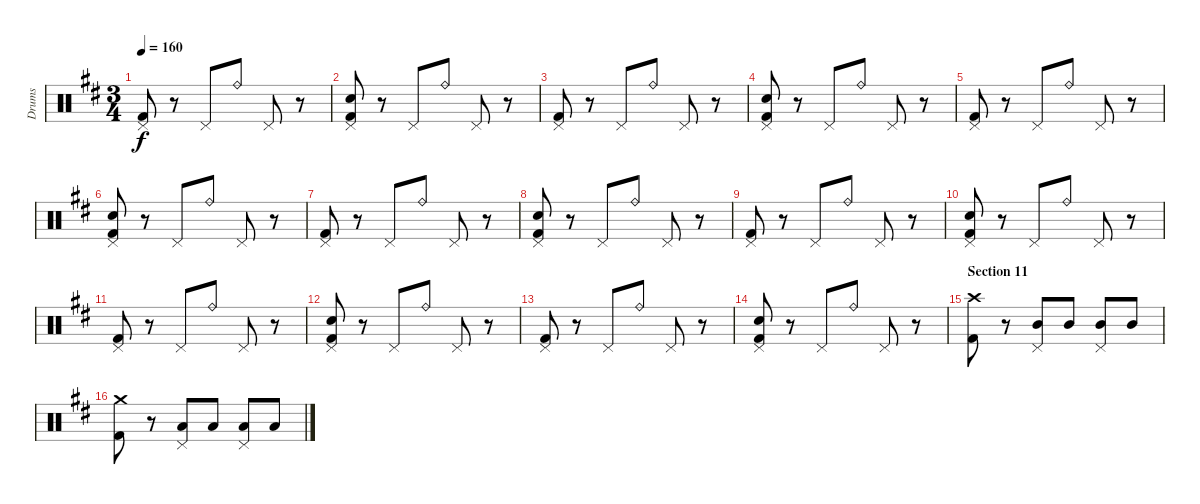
\track ("Drums" "Drums") {instrument percussion}
\staff {score}
\articulation defaults
\ts (3 4)
\tempo 160
\clef neutral
\ks bminor
("Pedal Hi-Hat (hit)" "Kick (hit) 2").8{dy f} r.8 "Pedal Hi-Hat (hit)".8 "Ride (bell)".8 "Pedal Hi-Hat (hit)".8 r.8 |
("Pedal Hi-Hat (hit)" "Snare (hit) 2" "Kick (hit) 2").8 r.8 "Pedal Hi-Hat (hit)".8 "Ride (bell)".8 "Pedal Hi-Hat (hit)".8 r.8 |
("Pedal Hi-Hat (hit)" "Kick (hit) 2").8 r.8 "Pedal Hi-Hat (hit)".8 "Ride (bell)".8 "Pedal Hi-Hat (hit)".8 r.8 |
("Pedal Hi-Hat (hit)" "Snare (hit) 2" "Kick (hit) 2").8 r.8 "Pedal Hi-Hat (hit)".8 "Ride (bell)".8 "Pedal Hi-Hat (hit)".8 r.8 |
("Pedal Hi-Hat (hit)" "Kick (hit) 2").8 r.8 "Pedal Hi-Hat (hit)".8 "Ride (bell)".8 "Pedal Hi-Hat (hit)".8 r.8 |
("Pedal Hi-Hat (hit)" "Snare (hit) 2" "Kick (hit) 2").8 r.8 "Pedal Hi-Hat (hit)".8 "Ride (bell)".8 "Pedal Hi-Hat (hit)".8 r.8 |
("Pedal Hi-Hat (hit)" "Kick (hit) 2").8 r.8 "Pedal Hi-Hat (hit)".8 "Ride (bell)".8 "Pedal Hi-Hat (hit)".8 r.8 |
("Pedal Hi-Hat (hit)" "Snare (hit) 2" "Kick (hit) 2").8 r.8 "Pedal Hi-Hat (hit)".8 "Ride (bell)".8 "Pedal Hi-Hat (hit)".8 r.8 |
("Pedal Hi-Hat (hit)" "Kick (hit) 2").8 r.8 "Pedal Hi-Hat (hit)".8 "Ride (bell)".8 "Pedal Hi-Hat (hit)".8 r.8 |
("Pedal Hi-Hat (hit)" "Snare (hit) 2" "Kick (hit) 2").8 r.8 "Pedal Hi-Hat (hit)".8 "Ride (bell)".8 "Pedal Hi-Hat (hit)".8 r.8 |
("Pedal Hi-Hat (hit)" "Kick (hit) 2").8 r.8 "Pedal Hi-Hat (hit)".8 "Ride (bell)".8 "Pedal Hi-Hat (hit)".8 r.8 |
("Pedal Hi-Hat (hit)" "Snare (hit) 2" "Kick (hit) 2").8 r.8 "Pedal Hi-Hat (hit)".8 "Ride (bell)".8 "Pedal Hi-Hat (hit)".8 r.8 |
("Pedal Hi-Hat (hit)" "Kick (hit) 2").8 r.8 "Pedal Hi-Hat (hit)".8 "Ride (bell)".8 "Pedal Hi-Hat (hit)".8 r.8 |
("Pedal Hi-Hat (hit)" "Snare (hit) 2" "Kick (hit) 2").8 r.8 "Pedal Hi-Hat (hit)".8 "Ride (bell)".8 "Pedal Hi-Hat (hit)".8 r.8 |
\section ("" "Section 11")
("Crash high (hit)" "Kick (hit) 2").8 r.8 ("Mid Tom (hit)" "Pedal Hi-Hat (hit)").8 "Mid Tom (hit)".8 ("Mid Tom (hit)" "Pedal Hi-Hat (hit)").8 "Mid Tom (hit)".8 |
("Crash medium (hit)" "Kick (hit) 2").8 r.8 ("Pedal Hi-Hat (hit)" "Low Tom (hit)").8 "Low Tom (hit)".8 ("Pedal Hi-Hat (hit)" "Low Tom (hit)").8 "Low Tom (hit)".8
